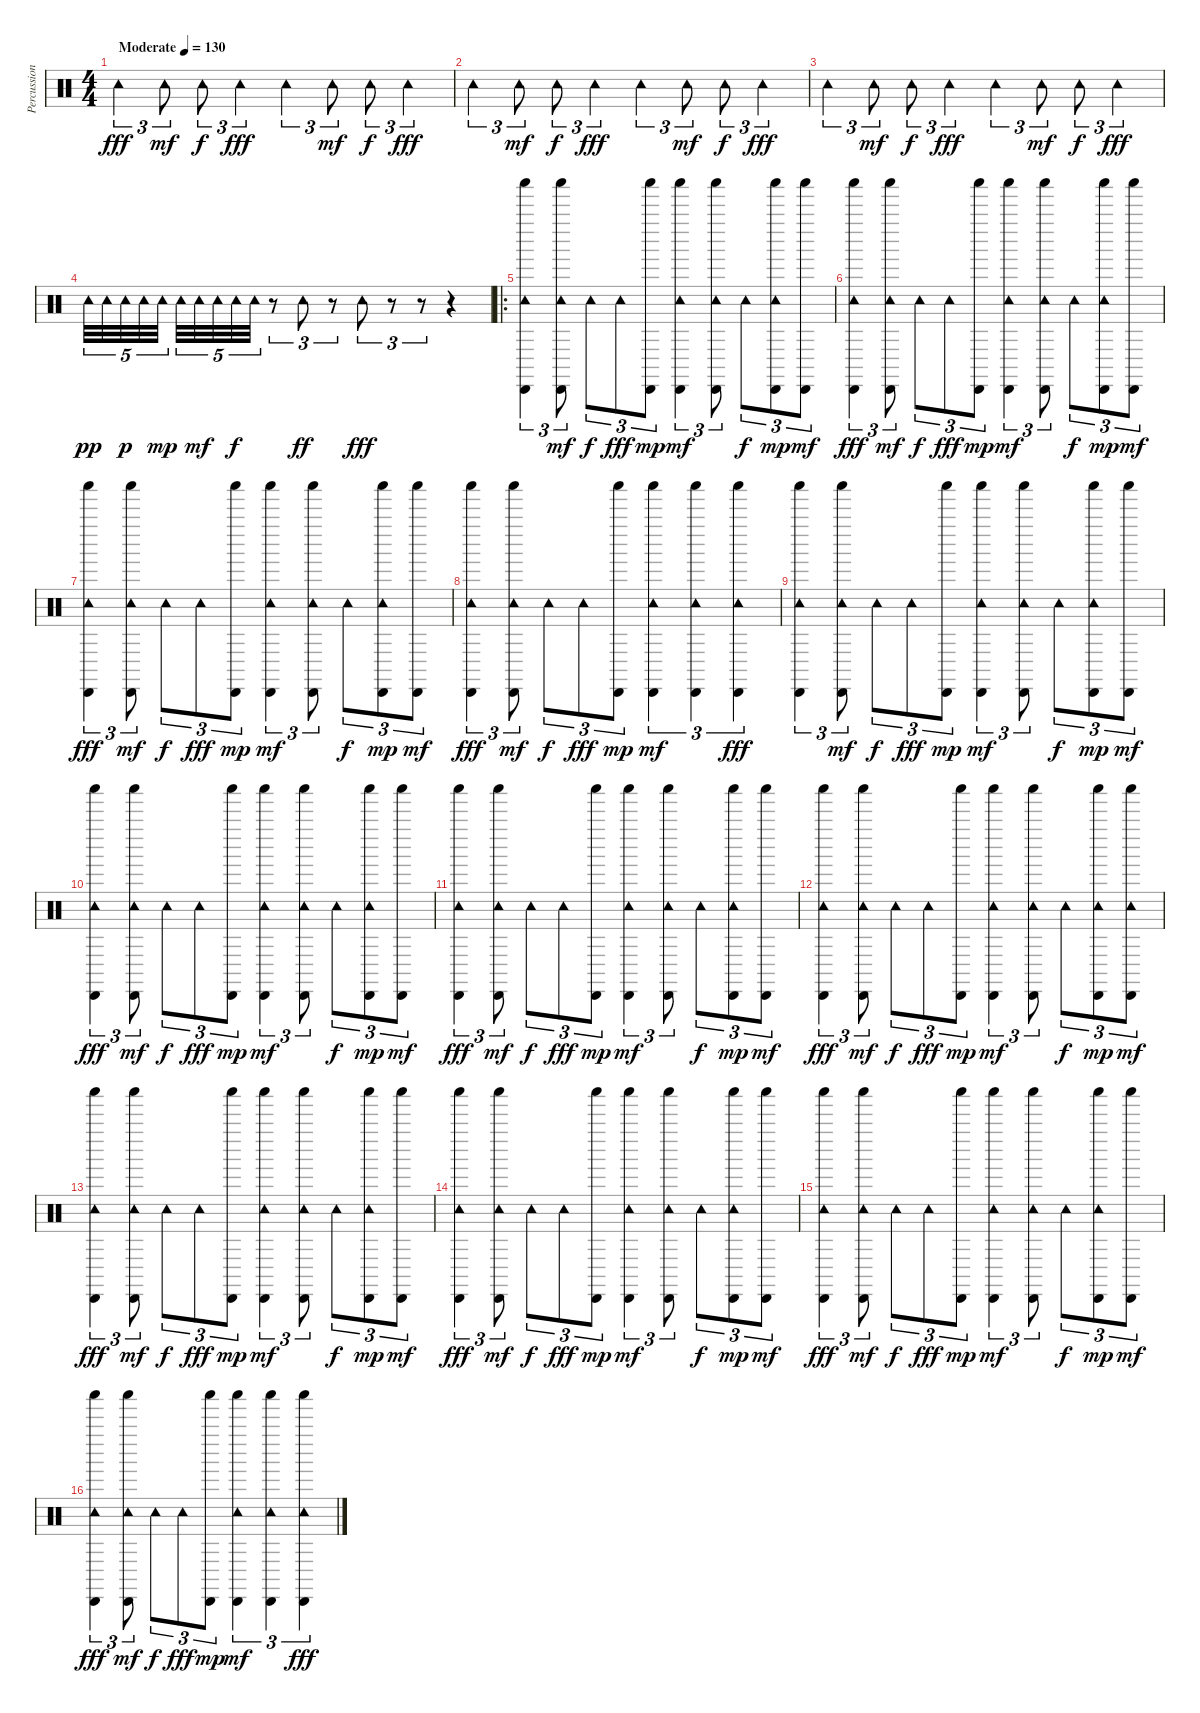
\track ("Percussion" "Percussion") {instrument percussion}
\staff {score}
\articulation defaults
\ts (4 4)
\tempo (130 "Moderate")
\clef neutral
\ks c "Tambourine (hit)".4{tu (3 2) dy fff} "Tambourine (hit)".8{tu (3 2) dy mf} "Tambourine (hit)".8{tu (3 2) dy f} "Tambourine (hit)".4{tu (3 2) dy fff} "Tambourine (hit)".4{tu (3 2)} "Tambourine (hit)".8{tu (3 2) dy mf} "Tambourine (hit)".8{tu (3 2) dy f} "Tambourine (hit)".4{tu (3 2) dy fff}
|
"Tambourine (hit)".4{tu (3 2)} "Tambourine (hit)".8{tu (3 2) dy mf} "Tambourine (hit)".8{tu (3 2) dy f} "Tambourine (hit)".4{tu (3 2) dy fff} "Tambourine (hit)".4{tu (3 2)} "Tambourine (hit)".8{tu (3 2) dy mf} "Tambourine (hit)".8{tu (3 2) dy f} "Tambourine (hit)".4{tu (3 2) dy fff} |
"Tambourine (hit)".4{tu (3 2)} "Tambourine (hit)".8{tu (3 2) dy mf} "Tambourine (hit)".8{tu (3 2) dy f} "Tambourine (hit)".4{tu (3 2) dy fff} "Tambourine (hit)".4{tu (3 2)} "Tambourine (hit)".8{tu (3 2) dy mf} "Tambourine (hit)".8{tu (3 2) dy f} "Tambourine (hit)".4{tu (3 2) dy fff} |
"Tambourine (hit)".32{tu (5 4) dy pp} "Tambourine (hit)".32{tu (5 4)} "Tambourine (hit)".32{tu (5 4) dy p} "Tambourine (hit)".32{tu (5 4)} "Tambourine (hit)".32{tu (5 4) dy mp beam splitsecondary} "Tambourine (hit)".32{tu (5 4)} "Tambourine (hit)".32{tu (5 4) dy mf} "Tambourine (hit)".32{tu (5 4)} "Tambourine (hit)".32{tu (5 4) dy f} "Tambourine (hit)".32{tu (5 4)} r.8{tu (3 2)} "Tambourine (hit)".8{tu (3 2) dy ff} r.8{tu (3 2)} "Tambourine (hit)".8{tu (3 2) dy fff} r.8{tu (3 2)} r.8{tu (3 2)} r.4 |
\ro
("Tambourine (hit)" "Cabasa (hit)" "Shaker (hit)").4{tu (3 2)} ("Tambourine (hit)" "Cabasa (hit)" "Shaker (hit)").8{tu (3 2) dy mf} "Tambourine (hit)".8{tu (3 2) dy f} "Tambourine (hit)".8{tu (3 2) dy fff} ("Cabasa (hit)" "Shaker (hit)").8{tu (3 2) dy mp} ("Tambourine (hit)" "Cabasa (hit)" "Shaker (hit)").4{tu (3 2) dy mf} ("Tambourine (hit)" "Cabasa (hit)" "Shaker (hit)").8{tu (3 2)} "Tambourine (hit)".8{tu (3 2) dy f} ("Tambourine (hit)" "Cabasa (hit)" "Shaker (hit)").8{tu (3 2) dy mp} ("Cabasa (hit)" "Shaker (hit)").8{tu (3 2) dy mf} |
("Tambourine (hit)" "Cabasa (hit)" "Shaker (hit)").4{tu (3 2) dy fff} ("Tambourine (hit)" "Cabasa (hit)" "Shaker (hit)").8{tu (3 2) dy mf} "Tambourine (hit)".8{tu (3 2) dy f} "Tambourine (hit)".8{tu (3 2) dy fff} ("Cabasa (hit)" "Shaker (hit)").8{tu (3 2) dy mp} ("Tambourine (hit)" "Cabasa (hit)" "Shaker (hit)").4{tu (3 2) dy mf} ("Tambourine (hit)" "Cabasa (hit)" "Shaker (hit)").8{tu (3 2)} "Tambourine (hit)".8{tu (3 2) dy f} ("Tambourine (hit)" "Cabasa (hit)" "Shaker (hit)").8{tu (3 2) dy mp} ("Cabasa (hit)" "Shaker (hit)").8{tu (3 2) dy mf} |
("Tambourine (hit)" "Cabasa (hit)" "Shaker (hit)").4{tu (3 2) dy fff} ("Tambourine (hit)" "Cabasa (hit)" "Shaker (hit)").8{tu (3 2) dy mf} "Tambourine (hit)".8{tu (3 2) dy f} "Tambourine (hit)".8{tu (3 2) dy fff} ("Cabasa (hit)" "Shaker (hit)").8{tu (3 2) dy mp} ("Tambourine (hit)" "Cabasa (hit)" "Shaker (hit)").4{tu (3 2) dy mf} ("Tambourine (hit)" "Cabasa (hit)" "Shaker (hit)").8{tu (3 2)} "Tambourine (hit)".8{tu (3 2) dy f} ("Tambourine (hit)" "Cabasa (hit)" "Shaker (hit)").8{tu (3 2) dy mp} ("Cabasa (hit)" "Shaker (hit)").8{tu (3 2) dy mf} |
("Tambourine (hit)" "Cabasa (hit)" "Shaker (hit)").4{tu (3 2) dy fff} ("Tambourine (hit)" "Cabasa (hit)" "Shaker (hit)").8{tu (3 2) dy mf} "Tambourine (hit)".8{tu (3 2) dy f} "Tambourine (hit)".8{tu (3 2) dy fff} ("Cabasa (hit)" "Shaker (hit)").8{tu (3 2) dy mp} ("Tambourine (hit)" "Cabasa (hit)" "Shaker (hit)").4{tu (3 2) dy mf} ("Tambourine (hit)" "Cabasa (hit)" "Shaker (hit)").4{tu (3 2)} ("Tambourine (hit)" "Cabasa (hit)" "Shaker (hit)").4{tu (3 2) dy fff} |
("Tambourine (hit)" "Cabasa (hit)" "Shaker (hit)").4{tu (3 2)} ("Tambourine (hit)" "Cabasa (hit)" "Shaker (hit)").8{tu (3 2) dy mf} "Tambourine (hit)".8{tu (3 2) dy f} "Tambourine (hit)".8{tu (3 2) dy fff} ("Cabasa (hit)" "Shaker (hit)").8{tu (3 2) dy mp} ("Tambourine (hit)" "Cabasa (hit)" "Shaker (hit)").4{tu (3 2) dy mf} ("Tambourine (hit)" "Cabasa (hit)" "Shaker (hit)").8{tu (3 2)} "Tambourine (hit)".8{tu (3 2) dy f} ("Tambourine (hit)" "Cabasa (hit)" "Shaker (hit)").8{tu (3 2) dy mp} ("Cabasa (hit)" "Shaker (hit)").8{tu (3 2) dy mf} |
("Tambourine (hit)" "Cabasa (hit)" "Shaker (hit)").4{tu (3 2) dy fff} ("Tambourine (hit)" "Cabasa (hit)" "Shaker (hit)").8{tu (3 2) dy mf} "Tambourine (hit)".8{tu (3 2) dy f} "Tambourine (hit)".8{tu (3 2) dy fff} ("Cabasa (hit)" "Shaker (hit)").8{tu (3 2) dy mp} ("Tambourine (hit)" "Cabasa (hit)" "Shaker (hit)").4{tu (3 2) dy mf} ("Tambourine (hit)" "Cabasa (hit)" "Shaker (hit)").8{tu (3 2)} "Tambourine (hit)".8{tu (3 2) dy f} ("Tambourine (hit)" "Cabasa (hit)" "Shaker (hit)").8{tu (3 2) dy mp} ("Cabasa (hit)" "Shaker (hit)").8{tu (3 2) dy mf} |
("Tambourine (hit)" "Cabasa (hit)" "Shaker (hit)").4{tu (3 2) dy fff} ("Tambourine (hit)" "Cabasa (hit)" "Shaker (hit)").8{tu (3 2) dy mf} "Tambourine (hit)".8{tu (3 2) dy f} "Tambourine (hit)".8{tu (3 2) dy fff} ("Cabasa (hit)" "Shaker (hit)").8{tu (3 2) dy mp} ("Tambourine (hit)" "Cabasa (hit)" "Shaker (hit)").4{tu (3 2) dy mf} ("Tambourine (hit)" "Cabasa (hit)" "Shaker (hit)").8{tu (3 2)} "Tambourine (hit)".8{tu (3 2) dy f} ("Tambourine (hit)" "Cabasa (hit)" "Shaker (hit)").8{tu (3 2) dy mp} ("Cabasa (hit)" "Shaker (hit)").8{tu (3 2) dy mf} |
("Tambourine (hit)" "Cabasa (hit)" "Shaker (hit)").4{tu (3 2) dy fff} ("Tambourine (hit)" "Cabasa (hit)" "Shaker (hit)").8{tu (3 2) dy mf} "Tambourine (hit)".8{tu (3 2) dy f} "Tambourine (hit)".8{tu (3 2) dy fff} ("Cabasa (hit)" "Shaker (hit)").8{tu (3 2) dy mp} ("Tambourine (hit)" "Cabasa (hit)" "Shaker (hit)").4{tu (3 2) dy mf} ("Tambourine (hit)" "Cabasa (hit)" "Shaker (hit)").8{tu (3 2)} "Tambourine (hit)".8{tu (3 2) dy f} ("Tambourine (hit)" "Cabasa (hit)" "Shaker (hit)").8{tu (3 2) dy mp} ("Tambourine (hit)" "Cabasa (hit)" "Shaker (hit)").8{tu (3 2) dy mf} |
("Tambourine (hit)" "Cabasa (hit)" "Shaker (hit)").4{tu (3 2) dy fff} ("Tambourine (hit)" "Cabasa (hit)" "Shaker (hit)").8{tu (3 2) dy mf} "Tambourine (hit)".8{tu (3 2) dy f} "Tambourine (hit)".8{tu (3 2) dy fff} ("Cabasa (hit)" "Shaker (hit)").8{tu (3 2) dy mp} ("Tambourine (hit)" "Cabasa (hit)" "Shaker (hit)").4{tu (3 2) dy mf} ("Tambourine (hit)" "Cabasa (hit)" "Shaker (hit)").8{tu (3 2)} "Tambourine (hit)".8{tu (3 2) dy f} ("Tambourine (hit)" "Cabasa (hit)" "Shaker (hit)").8{tu (3 2) dy mp} ("Cabasa (hit)" "Shaker (hit)").8{tu (3 2) dy mf} |
("Tambourine (hit)" "Cabasa (hit)" "Shaker (hit)").4{tu (3 2) dy fff} ("Tambourine (hit)" "Cabasa (hit)" "Shaker (hit)").8{tu (3 2) dy mf} "Tambourine (hit)".8{tu (3 2) dy f} "Tambourine (hit)".8{tu (3 2) dy fff} ("Cabasa (hit)" "Shaker (hit)").8{tu (3 2) dy mp} ("Tambourine (hit)" "Cabasa (hit)" "Shaker (hit)").4{tu (3 2) dy mf} ("Tambourine (hit)" "Cabasa (hit)" "Shaker (hit)").8{tu (3 2)} "Tambourine (hit)".8{tu (3 2) dy f} ("Tambourine (hit)" "Cabasa (hit)" "Shaker (hit)").8{tu (3 2) dy mp} ("Cabasa (hit)" "Shaker (hit)").8{tu (3 2) dy mf} |
("Tambourine (hit)" "Cabasa (hit)" "Shaker (hit)").4{tu (3 2) dy fff} ("Tambourine (hit)" "Cabasa (hit)" "Shaker (hit)").8{tu (3 2) dy mf} "Tambourine (hit)".8{tu (3 2) dy f} "Tambourine (hit)".8{tu (3 2) dy fff} ("Cabasa (hit)" "Shaker (hit)").8{tu (3 2) dy mp} ("Tambourine (hit)" "Cabasa (hit)" "Shaker (hit)").4{tu (3 2) dy mf} ("Tambourine (hit)" "Cabasa (hit)" "Shaker (hit)").8{tu (3 2)} "Tambourine (hit)".8{tu (3 2) dy f} ("Tambourine (hit)" "Cabasa (hit)" "Shaker (hit)").8{tu (3 2) dy mp} ("Cabasa (hit)" "Shaker (hit)").8{tu (3 2) dy mf} |
("Tambourine (hit)" "Cabasa (hit)" "Shaker (hit)").4{tu (3 2) dy fff} ("Tambourine (hit)" "Cabasa (hit)" "Shaker (hit)").8{tu (3 2) dy mf} "Tambourine (hit)".8{tu (3 2) dy f} "Tambourine (hit)".8{tu (3 2) dy fff} ("Cabasa (hit)" "Shaker (hit)").8{tu (3 2) dy mp} ("Tambourine (hit)" "Cabasa (hit)" "Shaker (hit)").4{tu (3 2) dy mf} ("Tambourine (hit)" "Cabasa (hit)" "Shaker (hit)").4{tu (3 2)} ("Tambourine (hit)" "Cabasa (hit)" "Shaker (hit)").4{tu (3 2) dy fff}
